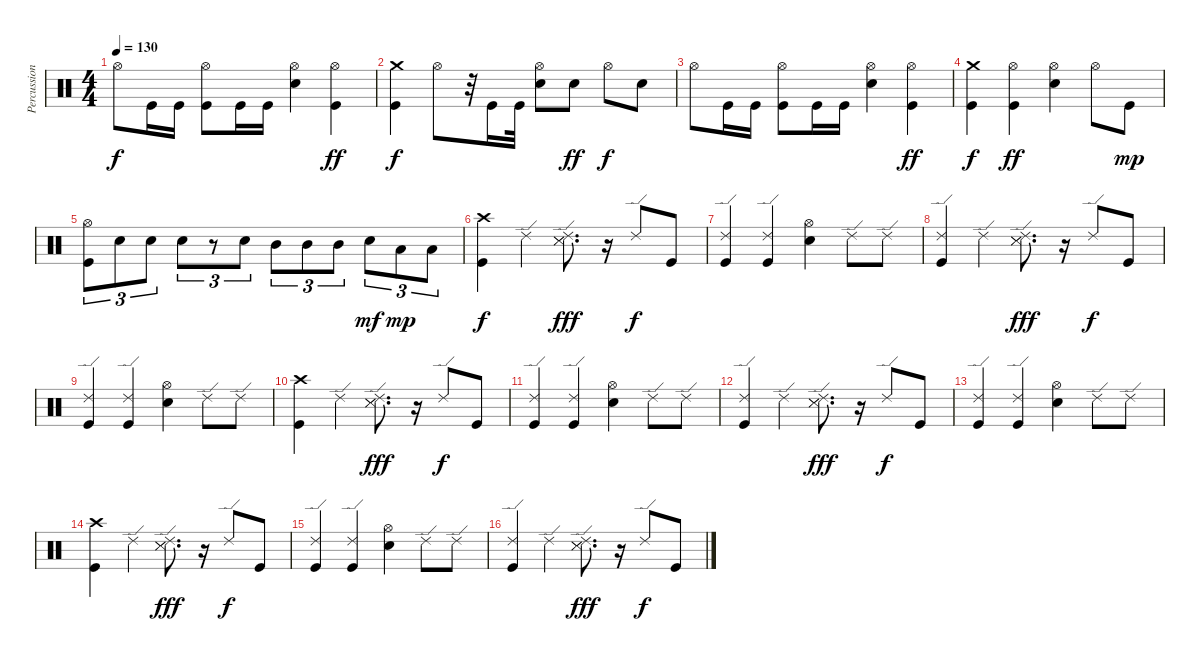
\track ("Percussion" "Percussion") {instrument percussion}
\staff {score}
\articulation defaults
\ts (4 4)
\tempo 130
\clef neutral
\ks c "Hi-Hat (open)".8{dy f} "Kick (hit)".16 "Kick (hit)".16
("Hi-Hat (open)" "Kick (hit)").8 "Kick (hit)".16 "Kick (hit)".16 ("Hi-Hat (open)" "Snare (hit) 2").4 ("Hi-Hat (open)" "Kick (hit)").4{dy ff} |
("Crash medium (hit)" "Kick (hit)").4{dy f} "Hi-Hat (open)".8 r.32 "Kick (hit)".16 "Kick (hit)".32 ("Hi-Hat (open)" "Snare (hit) 2").8 "Snare (hit) 2".8{dy ff} "Hi-Hat (open)".8{dy f} "Snare (hit) 2".8 |
"Hi-Hat (open)".8 "Kick (hit)".16 "Kick (hit)".16 ("Hi-Hat (open)" "Kick (hit)").8 "Kick (hit)".16 "Kick (hit)".16 ("Hi-Hat (open)" "Snare (hit) 2").4 ("Hi-Hat (open)" "Kick (hit)").4{dy ff} |
("Crash medium (hit)" "Kick (hit)").4{dy f} ("Hi-Hat (open)" "Kick (hit)").4{dy ff} ("Hi-Hat (open)" "Electric Snare (hit)").4 "Hi-Hat (open)".8 "Kick (hit)".8{dy mp} |
("Hi-Hat (open)" "Kick (hit)").8{tu (3 2)} "Electric Snare (hit)".8{tu (3 2)} "Electric Snare (hit)".8{tu (3 2)} "Electric Snare (hit)".8{tu (3 2)} r.8{tu (3 2)} "Electric Snare (hit)".8{tu (3 2)} "Mid Tom (hit)".8{tu (3 2)} "Mid Tom (hit)".8{tu (3 2)} "Mid Tom (hit)".8{tu (3 2)} "Snare (hit)".8{tu (3 2) dy mf} "Low Tom (hit)".8{tu (3 2) dy mp} "Low Tom (hit)".8{tu (3 2)} |
("Crash high (hit)" "Kick (hit)").4{dy f} "Ride (edge) 2".4 ("Ride (edge) 2" "Snare (side stick) 3" "Snare (side stick) 3").8{d dy fff} r.16 "Ride (edge) 2".8{dy f} "Kick (hit)".8 |
("Ride (edge) 2" "Kick (hit)").4 ("Ride (edge) 2" "Kick (hit)").4 ("Hi-Hat (open)" "Snare (hit) 2").4 "Ride (edge) 2".8 "Ride (edge) 2".8 |
("Ride (edge) 2" "Kick (hit)").4 "Ride (edge) 2".4 ("Ride (edge) 2" "Snare (side stick) 3" "Snare (side stick) 3").8{d dy fff} r.16 "Ride (edge) 2".8{dy f} "Kick (hit)".8 |
("Ride (edge) 2" "Kick (hit)").4 ("Ride (edge) 2" "Kick (hit)").4 ("Hi-Hat (open)" "Snare (hit) 2").4 "Ride (edge) 2".8 "Ride (edge) 2".8 |
("Crash high (hit)" "Kick (hit)").4 "Ride (edge) 2".4 ("Ride (edge) 2" "Snare (side stick) 3" "Snare (side stick) 3").8{d dy fff} r.16 "Ride (edge) 2".8{dy f} "Kick (hit)".8 |
("Ride (edge) 2" "Kick (hit)").4 ("Ride (edge) 2" "Kick (hit)").4 ("Hi-Hat (open)" "Snare (hit) 2").4 "Ride (edge) 2".8 "Ride (edge) 2".8 |
("Ride (edge) 2" "Kick (hit)").4 "Ride (edge) 2".4 ("Ride (edge) 2" "Snare (side stick) 3" "Snare (side stick) 3").8{d dy fff} r.16 "Ride (edge) 2".8{dy f} "Kick (hit)".8 |
("Ride (edge) 2" "Kick (hit)").4 ("Ride (edge) 2" "Kick (hit)").4 ("Hi-Hat (open)" "Snare (hit) 2").4 "Ride (edge) 2".8 "Ride (edge) 2".8 |
("Crash high (hit)" "Kick (hit)").4 "Ride (edge) 2".4 ("Ride (edge) 2" "Snare (side stick) 3" "Snare (side stick) 3").8{d dy fff} r.16 "Ride (edge) 2".8{dy f} "Kick (hit)".8 |
("Ride (edge) 2" "Kick (hit)").4 ("Ride (edge) 2" "Kick (hit)").4 ("Hi-Hat (open)" "Snare (hit) 2").4 "Ride (edge) 2".8 "Ride (edge) 2".8 |
("Ride (edge) 2" "Kick (hit)").4 "Ride (edge) 2".4 ("Ride (edge) 2" "Snare (side stick) 3" "Snare (side stick) 3").8{d dy fff} r.16 "Ride (edge) 2".8{dy f} "Kick (hit)".8
